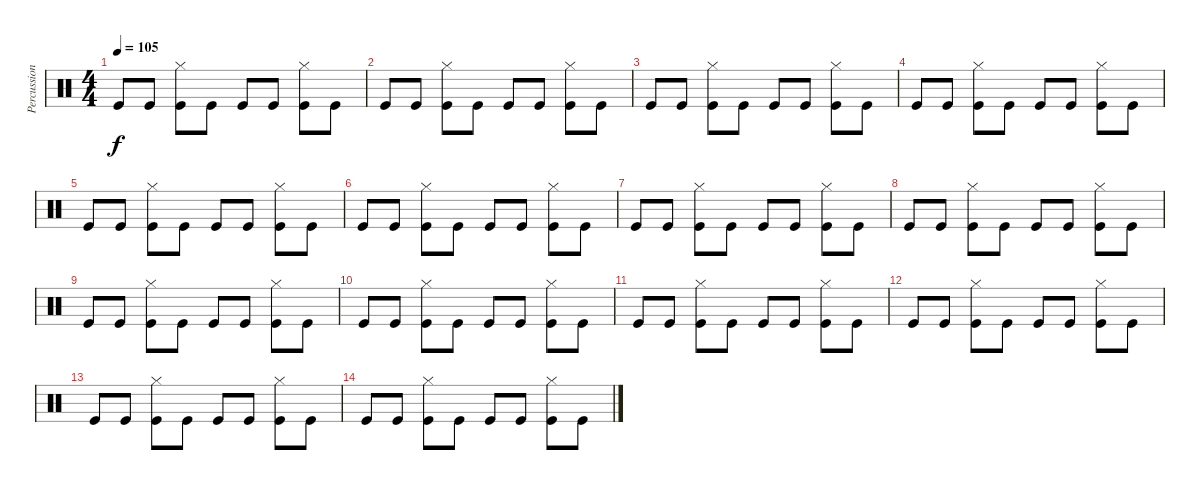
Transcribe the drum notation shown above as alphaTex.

\track ("Percussion" "Percussion") {instrument percussion}
\staff {score}
\articulation defaults
\ts (4 4)
\tempo 105
\clef neutral
\ks c "Kick (hit)".8{dy f} "Kick (hit)".8
("Hi-Hat (closed)" "Kick (hit)").8 "Kick (hit)".8 "Kick (hit)".8 "Kick (hit)".8 ("Hi-Hat (closed)" "Kick (hit)").8 "Kick (hit)".8 |
"Kick (hit)".8 "Kick (hit)".8 ("Hi-Hat (closed)" "Kick (hit)").8 "Kick (hit)".8 "Kick (hit)".8 "Kick (hit)".8 ("Hi-Hat (closed)" "Kick (hit)").8 "Kick (hit)".8 |
"Kick (hit)".8 "Kick (hit)".8 ("Hi-Hat (closed)" "Kick (hit)").8 "Kick (hit)".8 "Kick (hit)".8 "Kick (hit)".8 ("Hi-Hat (closed)" "Kick (hit)").8 "Kick (hit)".8 |
"Kick (hit)".8 "Kick (hit)".8 ("Hi-Hat (closed)" "Kick (hit)").8 "Kick (hit)".8 "Kick (hit)".8 "Kick (hit)".8 ("Hi-Hat (closed)" "Kick (hit)").8 "Kick (hit)".8 |
"Kick (hit)".8 "Kick (hit)".8 ("Hi-Hat (closed)" "Kick (hit)").8 "Kick (hit)".8 "Kick (hit)".8 "Kick (hit)".8 ("Hi-Hat (closed)" "Kick (hit)").8 "Kick (hit)".8 |
"Kick (hit)".8 "Kick (hit)".8 ("Hi-Hat (closed)" "Kick (hit)").8 "Kick (hit)".8 "Kick (hit)".8 "Kick (hit)".8 ("Hi-Hat (closed)" "Kick (hit)").8 "Kick (hit)".8 |
"Kick (hit)".8 "Kick (hit)".8 ("Hi-Hat (closed)" "Kick (hit)").8 "Kick (hit)".8 "Kick (hit)".8 "Kick (hit)".8 ("Hi-Hat (closed)" "Kick (hit)").8 "Kick (hit)".8 |
"Kick (hit)".8 "Kick (hit)".8 ("Hi-Hat (closed)" "Kick (hit)").8 "Kick (hit)".8 "Kick (hit)".8 "Kick (hit)".8 ("Hi-Hat (closed)" "Kick (hit)").8 "Kick (hit)".8 |
"Kick (hit)".8 "Kick (hit)".8 ("Hi-Hat (closed)" "Kick (hit)").8 "Kick (hit)".8 "Kick (hit)".8 "Kick (hit)".8 ("Hi-Hat (closed)" "Kick (hit)").8 "Kick (hit)".8 |
"Kick (hit)".8 "Kick (hit)".8 ("Hi-Hat (closed)" "Kick (hit)").8 "Kick (hit)".8 "Kick (hit)".8 "Kick (hit)".8 ("Hi-Hat (closed)" "Kick (hit)").8 "Kick (hit)".8 |
"Kick (hit)".8 "Kick (hit)".8 ("Hi-Hat (closed)" "Kick (hit)").8 "Kick (hit)".8 "Kick (hit)".8 "Kick (hit)".8 ("Hi-Hat (closed)" "Kick (hit)").8 "Kick (hit)".8 |
"Kick (hit)".8 "Kick (hit)".8 ("Hi-Hat (closed)" "Kick (hit)").8 "Kick (hit)".8 "Kick (hit)".8 "Kick (hit)".8 ("Hi-Hat (closed)" "Kick (hit)").8 "Kick (hit)".8 |
"Kick (hit)".8 "Kick (hit)".8 ("Hi-Hat (closed)" "Kick (hit)").8 "Kick (hit)".8 "Kick (hit)".8 "Kick (hit)".8 ("Hi-Hat (closed)" "Kick (hit)").8 "Kick (hit)".8 |
"Kick (hit)".8 "Kick (hit)".8 ("Hi-Hat (closed)" "Kick (hit)").8 "Kick (hit)".8 "Kick (hit)".8 "Kick (hit)".8 ("Hi-Hat (closed)" "Kick (hit)").8 "Kick (hit)".8
